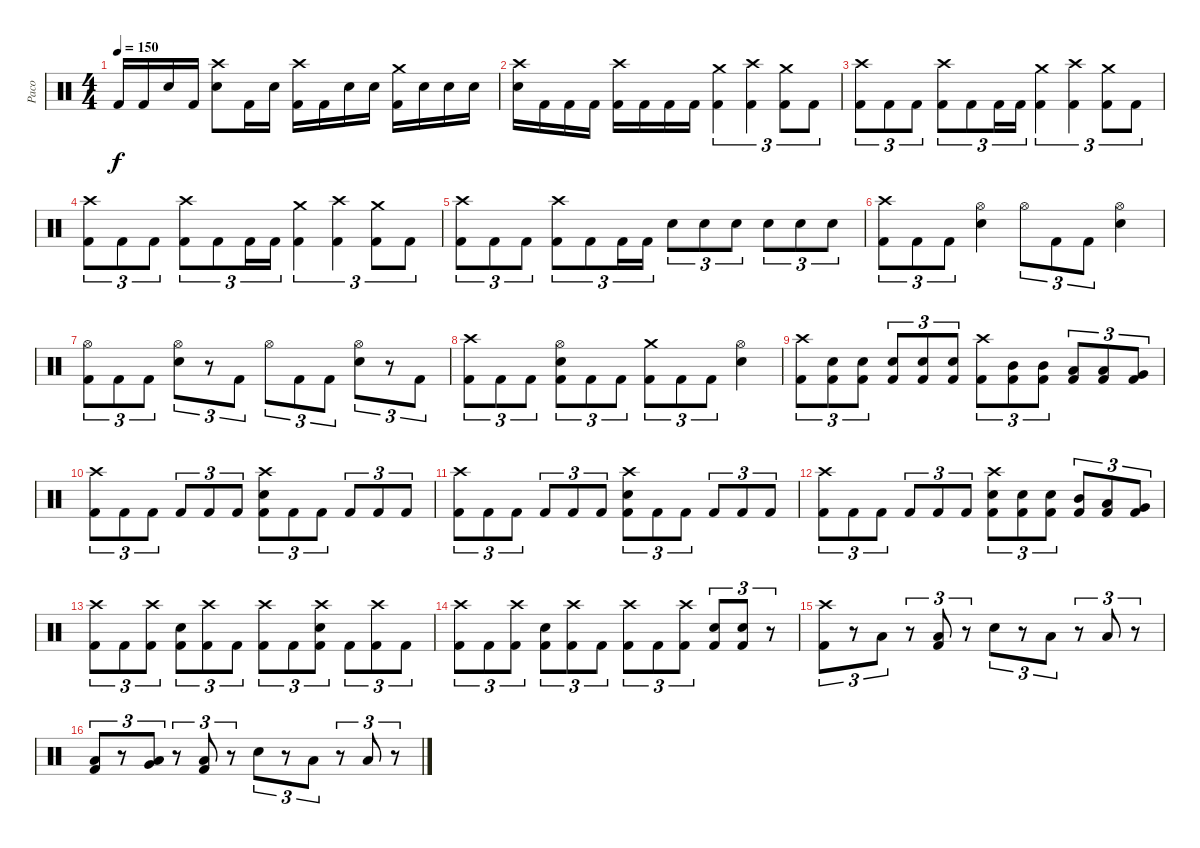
\track ("Paco" "Paco") {instrument percussion}
\staff {score}
\articulation defaults
\ts (4 4)
\tempo 150
\clef neutral
\ks c "Kick (hit) 2".16{dy f} "Kick (hit) 2".16 "Electric Snare (hit)".16 "Kick (hit) 2".16
("Crash high (hit)" "Electric Snare (hit)").8 "Kick (hit) 2".16 "Electric Snare (hit)".16 ("Crash high (hit)" "Kick (hit) 2").16 "Kick (hit) 2".16 "Electric Snare (hit)".16 "Electric Snare (hit)".16 ("Crash medium (hit)" "Kick (hit) 2").16 "Electric Snare (hit)".16 "Electric Snare (hit)".16 "Electric Snare (hit)".16 |
("Crash high (hit)" "Electric Snare (hit)").16 "Kick (hit) 2".16 "Kick (hit) 2".16 "Kick (hit) 2".16 ("Crash high (hit)" "Kick (hit) 2").16 "Kick (hit) 2".16 "Kick (hit) 2".16 "Kick (hit) 2".16 ("Crash medium (hit)" "Kick (hit) 2").4{tu (3 2)} ("Crash high (hit)" "Kick (hit) 2").4{tu (3 2)} ("Crash medium (hit)" "Kick (hit) 2").8{tu (3 2)} "Kick (hit) 2".8{tu (3 2)} |
("Crash high (hit)" "Kick (hit) 2").8{tu (3 2)} "Kick (hit) 2".8{tu (3 2)} "Kick (hit) 2".8{tu (3 2)} ("Crash high (hit)" "Kick (hit) 2").8{tu (3 2)} "Kick (hit) 2".8{tu (3 2)} "Kick (hit) 2".16{tu (3 2)} "Kick (hit) 2".16{tu (3 2)} ("Crash medium (hit)" "Kick (hit) 2").4{tu (3 2)} ("Crash high (hit)" "Kick (hit) 2").4{tu (3 2)} ("Crash medium (hit)" "Kick (hit) 2").8{tu (3 2)} "Kick (hit) 2".8{tu (3 2)} |
("Crash high (hit)" "Kick (hit) 2").8{tu (3 2)} "Kick (hit) 2".8{tu (3 2)} "Kick (hit) 2".8{tu (3 2)} ("Crash high (hit)" "Kick (hit) 2").8{tu (3 2)} "Kick (hit) 2".8{tu (3 2)} "Kick (hit) 2".16{tu (3 2)} "Kick (hit) 2".16{tu (3 2)} ("Crash medium (hit)" "Kick (hit) 2").4{tu (3 2)} ("Crash high (hit)" "Kick (hit) 2").4{tu (3 2)} ("Crash medium (hit)" "Kick (hit) 2").8{tu (3 2)} "Kick (hit) 2".8{tu (3 2)} |
("Crash high (hit)" "Kick (hit) 2").8{tu (3 2)} "Kick (hit) 2".8{tu (3 2)} "Kick (hit) 2".8{tu (3 2)} ("Crash high (hit)" "Kick (hit) 2").8{tu (3 2)} "Kick (hit) 2".8{tu (3 2)} "Kick (hit) 2".16{tu (3 2)} "Kick (hit) 2".16{tu (3 2)} "Electric Snare (hit)".8{tu (3 2)} "Electric Snare (hit)".8{tu (3 2)} "Electric Snare (hit)".8{tu (3 2)} "Electric Snare (hit)".8{tu (3 2)} "Electric Snare (hit)".8{tu (3 2)} "Electric Snare (hit)".8{tu (3 2)} |
("Crash high (hit)" "Kick (hit) 2").8{tu (3 2)} "Kick (hit) 2".8{tu (3 2)} "Kick (hit) 2".8{tu (3 2)} ("Hi-Hat (open)" "Electric Snare (hit)").4 "Hi-Hat (open)".8{tu (3 2)} "Kick (hit) 2".8{tu (3 2)} "Kick (hit) 2".8{tu (3 2)} ("Hi-Hat (open)" "Electric Snare (hit)").4 |
("Hi-Hat (open)" "Kick (hit) 2").8{tu (3 2)} "Kick (hit) 2".8{tu (3 2)} "Kick (hit) 2".8{tu (3 2)} ("Hi-Hat (open)" "Electric Snare (hit)").8{tu (3 2)} r.8{tu (3 2)} "Kick (hit) 2".8{tu (3 2)} "Hi-Hat (open)".8{tu (3 2)} "Kick (hit) 2".8{tu (3 2)} "Kick (hit) 2".8{tu (3 2)} ("Hi-Hat (open)" "Electric Snare (hit)").8{tu (3 2)} r.8{tu (3 2)} "Kick (hit) 2".8{tu (3 2)} |
("Crash high (hit)" "Kick (hit) 2").8{tu (3 2)} "Kick (hit) 2".8{tu (3 2)} "Kick (hit) 2".8{tu (3 2)} ("Hi-Hat (open)" "Electric Snare (hit)" "Kick (hit) 2").8{tu (3 2)} "Kick (hit) 2".8{tu (3 2)} "Kick (hit) 2".8{tu (3 2)} ("Crash medium (hit)" "Kick (hit) 2").8{tu (3 2)} "Kick (hit) 2".8{tu (3 2)} "Kick (hit) 2".8{tu (3 2)} ("Hi-Hat (open)" "Electric Snare (hit)").4 |
("Crash high (hit)" "Kick (hit) 2").8{tu (3 2)} ("Electric Snare (hit)" "Kick (hit) 2").8{tu (3 2)} ("Electric Snare (hit)" "Kick (hit) 2").8{tu (3 2)} ("Electric Snare (hit)" "Kick (hit) 2").8{tu (3 2)} ("Electric Snare (hit)" "Kick (hit) 2").8{tu (3 2)} ("Electric Snare (hit)" "Kick (hit) 2").8{tu (3 2)} ("Crash high (hit)" "Kick (hit) 2").8{tu (3 2)} ("Mid Tom (hit)" "Kick (hit) 2").8{tu (3 2)} ("Mid Tom (hit)" "Kick (hit) 2").8{tu (3 2)} ("Low Tom (hit)" "Kick (hit) 2").8{tu (3 2)} ("Low Tom (hit)" "Kick (hit) 2").8{tu (3 2)} ("Very Low Tom (hit)" "Kick (hit) 2").8{tu (3 2)} |
("Crash high (hit)" "Kick (hit) 2").8{tu (3 2)} "Kick (hit) 2".8{tu (3 2)} "Kick (hit) 2".8{tu (3 2)} "Kick (hit) 2".8{tu (3 2)} "Kick (hit) 2".8{tu (3 2)} "Kick (hit) 2".8{tu (3 2)} ("Crash high (hit)" "Electric Snare (hit)" "Kick (hit) 2").8{tu (3 2)} "Kick (hit) 2".8{tu (3 2)} "Kick (hit) 2".8{tu (3 2)} "Kick (hit) 2".8{tu (3 2)} "Kick (hit) 2".8{tu (3 2)} "Kick (hit) 2".8{tu (3 2)} |
("Crash high (hit)" "Kick (hit) 2").8{tu (3 2)} "Kick (hit) 2".8{tu (3 2)} "Kick (hit) 2".8{tu (3 2)} "Kick (hit) 2".8{tu (3 2)} "Kick (hit) 2".8{tu (3 2)} "Kick (hit) 2".8{tu (3 2)} ("Crash high (hit)" "Electric Snare (hit)" "Kick (hit) 2").8{tu (3 2)} "Kick (hit) 2".8{tu (3 2)} "Kick (hit) 2".8{tu (3 2)} "Kick (hit) 2".8{tu (3 2)} "Kick (hit) 2".8{tu (3 2)} "Kick (hit) 2".8{tu (3 2)} |
("Crash high (hit)" "Kick (hit) 2").8{tu (3 2)} "Kick (hit) 2".8{tu (3 2)} "Kick (hit) 2".8{tu (3 2)} "Kick (hit) 2".8{tu (3 2)} "Kick (hit) 2".8{tu (3 2)} "Kick (hit) 2".8{tu (3 2)} ("Crash high (hit)" "Electric Snare (hit)" "Kick (hit) 2").8{tu (3 2)} ("Electric Snare (hit)" "Kick (hit) 2").8{tu (3 2)} ("Electric Snare (hit)" "Kick (hit) 2").8{tu (3 2)} ("Mid Tom (hit)" "Kick (hit) 2").8{tu (3 2)} ("Low Tom (hit)" "Kick (hit) 2").8{tu (3 2)} ("Very Low Tom (hit)" "Kick (hit) 2").8{tu (3 2)} |
("Crash high (hit)" "Kick (hit) 2").8{tu (3 2)} "Kick (hit) 2".8{tu (3 2)} ("Crash high (hit)" "Kick (hit) 2").8{tu (3 2)} ("Electric Snare (hit)" "Kick (hit) 2").8{tu (3 2)} ("Crash high (hit)" "Kick (hit) 2").8{tu (3 2)} "Kick (hit) 2".8{tu (3 2)} ("Crash high (hit)" "Kick (hit) 2").8{tu (3 2)} "Kick (hit) 2".8{tu (3 2)} ("Crash high (hit)" "Electric Snare (hit)" "Kick (hit) 2").8{tu (3 2)} "Kick (hit) 2".8{tu (3 2)} ("Crash high (hit)" "Kick (hit) 2").8{tu (3 2)} "Kick (hit) 2".8{tu (3 2)} |
("Crash high (hit)" "Kick (hit) 2").8{tu (3 2)} "Kick (hit) 2".8{tu (3 2)} ("Crash high (hit)" "Kick (hit) 2").8{tu (3 2)} ("Electric Snare (hit)" "Kick (hit) 2").8{tu (3 2)} ("Crash high (hit)" "Kick (hit) 2").8{tu (3 2)} "Kick (hit) 2".8{tu (3 2)} ("Crash high (hit)" "Kick (hit) 2").8{tu (3 2)} "Kick (hit) 2".8{tu (3 2)} ("Crash high (hit)" "Kick (hit) 2").8{tu (3 2)} ("Electric Snare (hit)" "Kick (hit) 2").8{tu (3 2)} ("Electric Snare (hit)" "Kick (hit) 2").8{tu (3 2)} r.8{tu (3 2)} |
("Crash high (hit)" "Kick (hit) 2").8{tu (3 2)} r.8{tu (3 2)} "Low Floor Tom (hit)".8{tu (3 2)} r.8{tu (3 2)} ("Low Floor Tom (hit)" "Kick (hit) 2").8{tu (3 2)} r.8{tu (3 2)} "Electric Snare (hit)".8{tu (3 2)} r.8{tu (3 2)} "Low Floor Tom (hit)".8{tu (3 2)} r.8{tu (3 2)} "Low Floor Tom (hit)".8{tu (3 2)} r.8{tu (3 2)} |
("Low Tom (hit)" "Kick (hit) 2").8{tu (3 2)} r.8{tu (3 2)} ("Very Low Tom (hit)" "Low Floor Tom (hit)").8{tu (3 2)} r.8{tu (3 2)} ("Low Floor Tom (hit)" "Kick (hit) 2").8{tu (3 2)} r.8{tu (3 2)} "Electric Snare (hit)".8{tu (3 2)} r.8{tu (3 2)} "Low Floor Tom (hit)".8{tu (3 2)} r.8{tu (3 2)} "Low Floor Tom (hit)".8{tu (3 2)} r.8{tu (3 2)}
